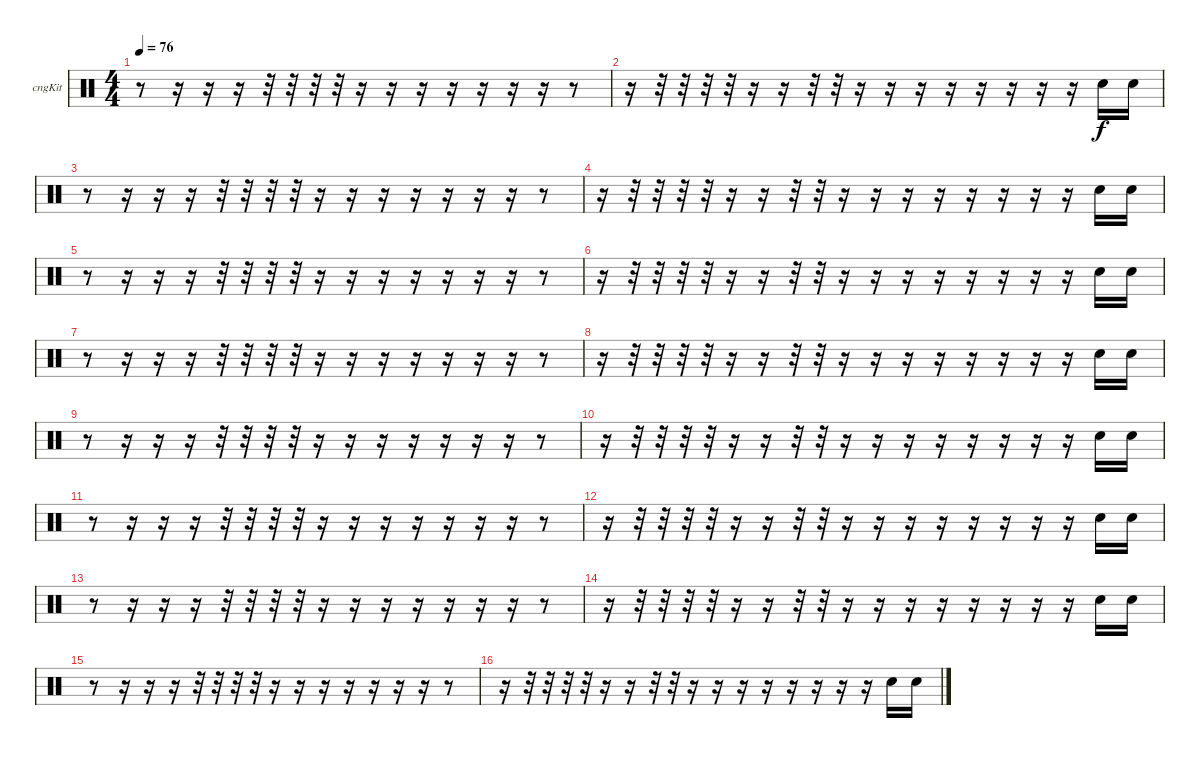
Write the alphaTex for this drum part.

\bracketExtendMode groupsimilarinstruments
\firstSystemTrackNameOrientation horizontal
\otherSystemsTrackNameOrientation horizontal
\track ("Congas" "cngKit") {instrument percussion}
\staff {score}
\articulation defaults
\ts (4 4)
\tempo 76
\clef neutral
\ks c
r.8{dy f} r.16 r.16 r.16 r.32 r.32 r.32 r.32 r.16 r.16 r.16 r.16 r.16 r.16 r.16 r.8 |
r.16 r.32 r.32 r.32 r.32 r.16 r.16 r.32 r.32 r.16 r.16 r.16 r.16 r.16 r.16 r.16 r.16 "Snare (hit) 2".16 "Snare (hit) 2".16 |
r.8 r.16 r.16 r.16 r.32 r.32 r.32 r.32 r.16 r.16 r.16 r.16 r.16 r.16 r.16 r.8 |
r.16 r.32 r.32 r.32 r.32 r.16 r.16 r.32 r.32 r.16 r.16 r.16 r.16 r.16 r.16 r.16 r.16 "Snare (hit) 2".16 "Snare (hit) 2".16 |
r.8 r.16 r.16 r.16 r.32 r.32 r.32 r.32 r.16 r.16 r.16 r.16 r.16 r.16 r.16 r.8 |
r.16 r.32 r.32 r.32 r.32 r.16 r.16 r.32 r.32 r.16 r.16 r.16 r.16 r.16 r.16 r.16 r.16 "Snare (hit) 2".16 "Snare (hit) 2".16 |
r.8 r.16 r.16 r.16 r.32 r.32 r.32 r.32 r.16 r.16 r.16 r.16 r.16 r.16 r.16 r.8 |
r.16 r.32 r.32 r.32 r.32 r.16 r.16 r.32 r.32 r.16 r.16 r.16 r.16 r.16 r.16 r.16 r.16 "Snare (hit) 2".16 "Snare (hit) 2".16 |
r.8 r.16 r.16 r.16 r.32 r.32 r.32 r.32 r.16 r.16 r.16 r.16 r.16 r.16 r.16 r.8 |
r.16 r.32 r.32 r.32 r.32 r.16 r.16 r.32 r.32 r.16 r.16 r.16 r.16 r.16 r.16 r.16 r.16 "Snare (hit) 2".16 "Snare (hit) 2".16 |
r.8 r.16 r.16 r.16 r.32 r.32 r.32 r.32 r.16 r.16 r.16 r.16 r.16 r.16 r.16 r.8 |
r.16 r.32 r.32 r.32 r.32 r.16 r.16 r.32 r.32 r.16 r.16 r.16 r.16 r.16 r.16 r.16 r.16 "Snare (hit) 2".16 "Snare (hit) 2".16 |
r.8 r.16 r.16 r.16 r.32 r.32 r.32 r.32 r.16 r.16 r.16 r.16 r.16 r.16 r.16 r.8 |
r.16 r.32 r.32 r.32 r.32 r.16 r.16 r.32 r.32 r.16 r.16 r.16 r.16 r.16 r.16 r.16 r.16 "Snare (hit) 2".16 "Snare (hit) 2".16 |
r.8 r.16 r.16 r.16 r.32 r.32 r.32 r.32 r.16 r.16 r.16 r.16 r.16 r.16 r.16 r.8 |
r.16 r.32 r.32 r.32 r.32 r.16 r.16 r.32 r.32 r.16 r.16 r.16 r.16 r.16 r.16 r.16 r.16 "Snare (hit) 2".16 "Snare (hit) 2".16
